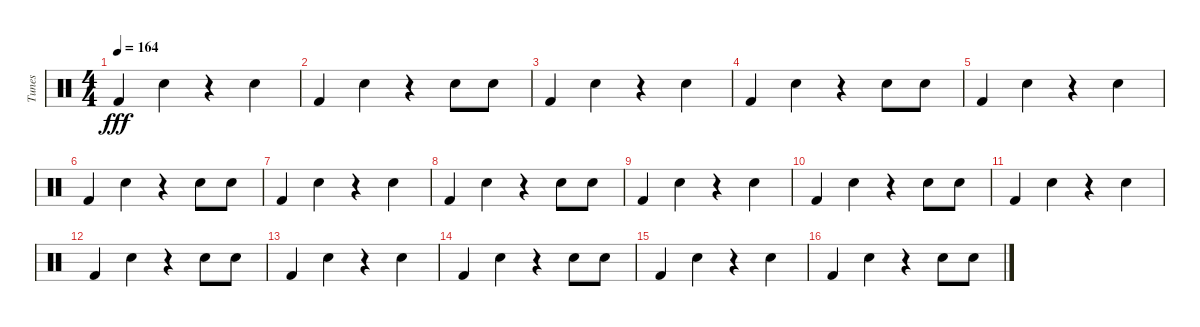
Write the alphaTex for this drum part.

\track ("Tunes" "Tunes") {instrument percussion}
\staff {score}
\articulation defaults
\ts (4 4)
\tempo 164
\clef neutral
\ks c "Kick (hit) 2".4{dy fff} "Electric Snare (hit)".4
r.4 "Electric Snare (hit)".4 |
"Kick (hit) 2".4 "Electric Snare (hit)".4 r.4 "Electric Snare (hit)".8 "Electric Snare (hit)".8 |
"Kick (hit) 2".4 "Electric Snare (hit)".4 r.4 "Electric Snare (hit)".4 |
"Kick (hit) 2".4 "Electric Snare (hit)".4 r.4 "Electric Snare (hit)".8 "Electric Snare (hit)".8 |
"Kick (hit) 2".4 "Electric Snare (hit)".4 r.4 "Electric Snare (hit)".4 |
"Kick (hit) 2".4 "Electric Snare (hit)".4 r.4 "Electric Snare (hit)".8 "Electric Snare (hit)".8 |
"Kick (hit) 2".4 "Electric Snare (hit)".4 r.4 "Electric Snare (hit)".4 |
"Kick (hit) 2".4 "Electric Snare (hit)".4 r.4 "Electric Snare (hit)".8 "Electric Snare (hit)".8 |
"Kick (hit) 2".4 "Electric Snare (hit)".4 r.4 "Electric Snare (hit)".4 |
"Kick (hit) 2".4 "Electric Snare (hit)".4 r.4 "Electric Snare (hit)".8 "Electric Snare (hit)".8 |
"Kick (hit) 2".4 "Electric Snare (hit)".4 r.4 "Electric Snare (hit)".4 |
"Kick (hit) 2".4 "Electric Snare (hit)".4 r.4 "Electric Snare (hit)".8 "Electric Snare (hit)".8 |
"Kick (hit) 2".4 "Electric Snare (hit)".4 r.4 "Electric Snare (hit)".4 |
"Kick (hit) 2".4 "Electric Snare (hit)".4 r.4 "Electric Snare (hit)".8 "Electric Snare (hit)".8 |
"Kick (hit) 2".4 "Electric Snare (hit)".4 r.4 "Electric Snare (hit)".4 |
"Kick (hit) 2".4 "Electric Snare (hit)".4 r.4 "Electric Snare (hit)".8 "Electric Snare (hit)".8
